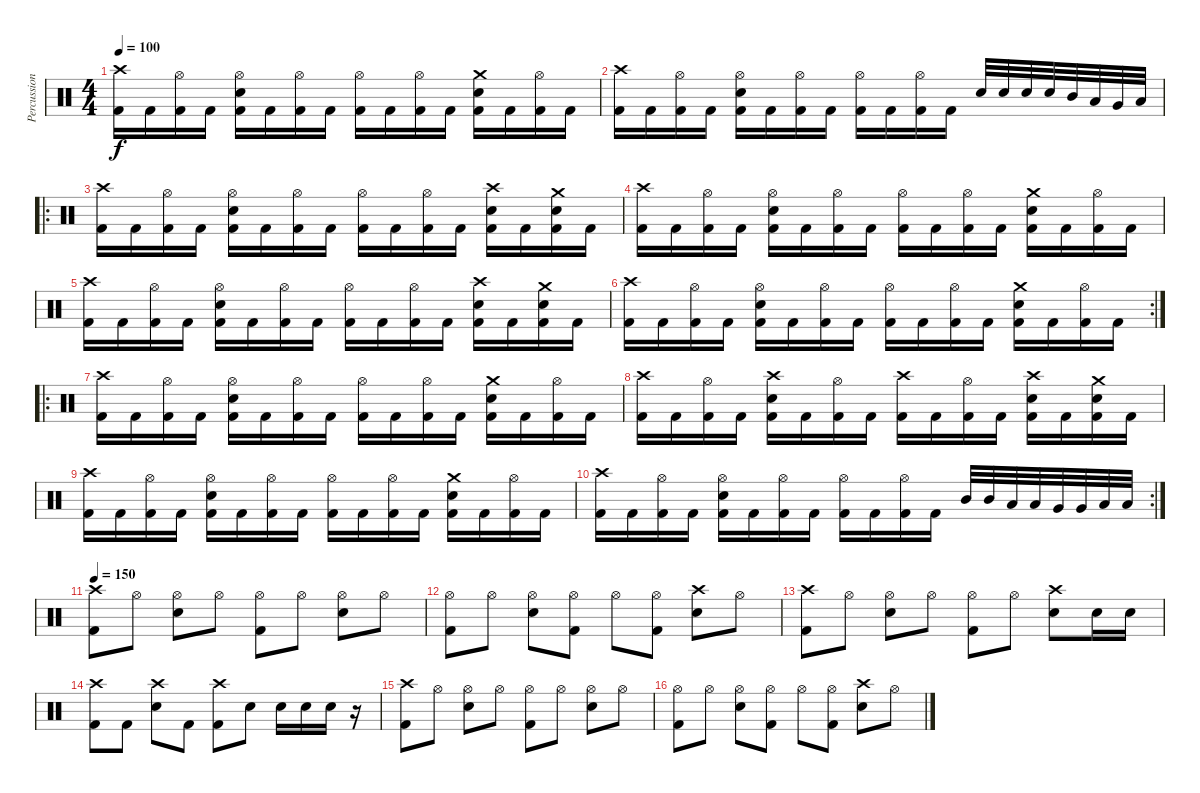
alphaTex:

\track ("Percussion" "Percussion") {instrument percussion}
\staff {score}
\articulation defaults
\ts (4 4)
\tempo 100
\clef neutral
\ks c
("Crash high (hit)" "Kick (hit) 2").16{dy f} "Kick (hit) 2".16 ("Hi-Hat (open)" "Kick (hit) 2").16 "Kick (hit) 2".16 ("Hi-Hat (open)" "Snare (hit) 2" "Kick (hit) 2").16 "Kick (hit) 2".16 ("Hi-Hat (open)" "Kick (hit) 2").16 "Kick (hit) 2".16 ("Hi-Hat (open)" "Kick (hit) 2").16 "Kick (hit) 2".16 ("Hi-Hat (open)" "Kick (hit) 2").16 "Kick (hit) 2".16 ("Crash medium (hit)" "Snare (hit) 2" "Kick (hit) 2").16 "Kick (hit) 2".16 ("Hi-Hat (open)" "Kick (hit) 2").16 "Kick (hit) 2".16 |
("Crash high (hit)" "Kick (hit) 2").16 "Kick (hit) 2".16 ("Hi-Hat (open)" "Kick (hit) 2").16 "Kick (hit) 2".16 ("Hi-Hat (open)" "Snare (hit) 2" "Kick (hit) 2").16 "Kick (hit) 2".16 ("Hi-Hat (open)" "Kick (hit) 2").16 "Kick (hit) 2".16 ("Hi-Hat (open)" "Kick (hit) 2").16 "Kick (hit) 2".16 ("Hi-Hat (open)" "Kick (hit) 2").16 "Kick (hit) 2".16 "Snare (hit) 2".32 "Snare (hit) 2".32 "Snare (hit) 2".32 "Snare (hit) 2".32 "Mid Tom (hit)".32 "Low Tom (hit)".32 "Very Low Tom (hit)".32 "Low Floor Tom (hit)".32 |
\ro
("Crash high (hit)" "Kick (hit) 2").16 "Kick (hit) 2".16 ("Hi-Hat (open)" "Kick (hit) 2").16 "Kick (hit) 2".16 ("Hi-Hat (open)" "Snare (hit) 2" "Kick (hit) 2").16 "Kick (hit) 2".16 ("Hi-Hat (open)" "Kick (hit) 2").16 "Kick (hit) 2".16 ("Hi-Hat (open)" "Kick (hit) 2").16 "Kick (hit) 2".16 ("Hi-Hat (open)" "Kick (hit) 2").16 "Kick (hit) 2".16 ("Crash high (hit)" "Snare (hit) 2" "Kick (hit) 2").16 "Kick (hit) 2".16 ("Crash medium (hit)" "Snare (hit) 2" "Kick (hit) 2").16 "Kick (hit) 2".16 |
("Crash high (hit)" "Kick (hit) 2").16 "Kick (hit) 2".16 ("Hi-Hat (open)" "Kick (hit) 2").16 "Kick (hit) 2".16 ("Hi-Hat (open)" "Snare (hit) 2" "Kick (hit) 2").16 "Kick (hit) 2".16 ("Hi-Hat (open)" "Kick (hit) 2").16 "Kick (hit) 2".16 ("Hi-Hat (open)" "Kick (hit) 2").16 "Kick (hit) 2".16 ("Hi-Hat (open)" "Kick (hit) 2").16 "Kick (hit) 2".16 ("Crash medium (hit)" "Snare (hit) 2" "Kick (hit) 2").16 "Kick (hit) 2".16 ("Hi-Hat (open)" "Kick (hit) 2").16 "Kick (hit) 2".16 |
("Crash high (hit)" "Kick (hit) 2").16 "Kick (hit) 2".16 ("Hi-Hat (open)" "Kick (hit) 2").16 "Kick (hit) 2".16 ("Hi-Hat (open)" "Snare (hit) 2" "Kick (hit) 2").16 "Kick (hit) 2".16 ("Hi-Hat (open)" "Kick (hit) 2").16 "Kick (hit) 2".16 ("Hi-Hat (open)" "Kick (hit) 2").16 "Kick (hit) 2".16 ("Hi-Hat (open)" "Kick (hit) 2").16 "Kick (hit) 2".16 ("Crash high (hit)" "Snare (hit) 2" "Kick (hit) 2").16 "Kick (hit) 2".16 ("Crash medium (hit)" "Snare (hit) 2" "Kick (hit) 2").16 "Kick (hit) 2".16 |
\rc 2
("Crash high (hit)" "Kick (hit) 2").16 "Kick (hit) 2".16 ("Hi-Hat (open)" "Kick (hit) 2").16 "Kick (hit) 2".16 ("Hi-Hat (open)" "Snare (hit) 2" "Kick (hit) 2").16 "Kick (hit) 2".16 ("Hi-Hat (open)" "Kick (hit) 2").16 "Kick (hit) 2".16 ("Hi-Hat (open)" "Kick (hit) 2").16 "Kick (hit) 2".16 ("Hi-Hat (open)" "Kick (hit) 2").16 "Kick (hit) 2".16 ("Crash medium (hit)" "Snare (hit) 2" "Kick (hit) 2").16 "Kick (hit) 2".16 ("Hi-Hat (open)" "Kick (hit) 2").16 "Kick (hit) 2".16 |
\ro
("Crash high (hit)" "Kick (hit) 2").16 "Kick (hit) 2".16 ("Hi-Hat (open)" "Kick (hit) 2").16 "Kick (hit) 2".16 ("Hi-Hat (open)" "Snare (hit) 2" "Kick (hit) 2").16 "Kick (hit) 2".16 ("Hi-Hat (open)" "Kick (hit) 2").16 "Kick (hit) 2".16 ("Hi-Hat (open)" "Kick (hit) 2").16 "Kick (hit) 2".16 ("Hi-Hat (open)" "Kick (hit) 2").16 "Kick (hit) 2".16 ("Crash medium (hit)" "Snare (hit) 2" "Kick (hit) 2").16 "Kick (hit) 2".16 ("Hi-Hat (open)" "Kick (hit) 2").16 "Kick (hit) 2".16 |
("Crash high (hit)" "Kick (hit) 2").16 "Kick (hit) 2".16 ("Hi-Hat (open)" "Kick (hit) 2").16 "Kick (hit) 2".16 ("Crash high (hit)" "Snare (hit) 2" "Kick (hit) 2").16 "Kick (hit) 2".16 ("Hi-Hat (open)" "Kick (hit) 2").16 "Kick (hit) 2".16 ("Crash high (hit)" "Kick (hit) 2").16 "Kick (hit) 2".16 ("Hi-Hat (open)" "Kick (hit) 2").16 "Kick (hit) 2".16 ("Crash high (hit)" "Snare (hit) 2" "Kick (hit) 2").16 "Kick (hit) 2".16 ("Crash medium (hit)" "Snare (hit) 2" "Kick (hit) 2").16 "Kick (hit) 2".16 |
("Crash high (hit)" "Kick (hit) 2").16 "Kick (hit) 2".16 ("Hi-Hat (open)" "Kick (hit) 2").16 "Kick (hit) 2".16 ("Hi-Hat (open)" "Snare (hit) 2" "Kick (hit) 2").16 "Kick (hit) 2".16 ("Hi-Hat (open)" "Kick (hit) 2").16 "Kick (hit) 2".16 ("Hi-Hat (open)" "Kick (hit) 2").16 "Kick (hit) 2".16 ("Hi-Hat (open)" "Kick (hit) 2").16 "Kick (hit) 2".16 ("Crash medium (hit)" "Snare (hit) 2" "Kick (hit) 2").16 "Kick (hit) 2".16 ("Hi-Hat (open)" "Kick (hit) 2").16 "Kick (hit) 2".16 |
\rc 2
("Crash high (hit)" "Kick (hit) 2").16 "Kick (hit) 2".16 ("Hi-Hat (open)" "Kick (hit) 2").16 "Kick (hit) 2".16 ("Hi-Hat (open)" "Snare (hit) 2" "Kick (hit) 2").16 "Kick (hit) 2".16 ("Hi-Hat (open)" "Kick (hit) 2").16 "Kick (hit) 2".16 ("Hi-Hat (open)" "Kick (hit) 2").16 "Kick (hit) 2".16 ("Hi-Hat (open)" "Kick (hit) 2").16 "Kick (hit) 2".16 "Mid Tom (hit)".32 "Mid Tom (hit)".32 "Low Tom (hit)".32 "Low Tom (hit)".32 "Very Low Tom (hit)".32 "Very Low Tom (hit)".32 "Low Floor Tom (hit)".32 "Low Floor Tom (hit)".32 |
\tempo 150
("Crash high (hit)" "Kick (hit) 2").8 "Hi-Hat (open)".8 ("Hi-Hat (open)" "Snare (hit) 2").8 "Hi-Hat (open)".8 ("Hi-Hat (open)" "Kick (hit) 2").8 "Hi-Hat (open)".8 ("Hi-Hat (open)" "Snare (hit) 2").8 "Hi-Hat (open)".8 |
("Hi-Hat (open)" "Kick (hit) 2").8 "Hi-Hat (open)".8 ("Hi-Hat (open)" "Snare (hit) 2").8 ("Hi-Hat (open)" "Kick (hit) 2").8 "Hi-Hat (open)".8 ("Hi-Hat (open)" "Kick (hit) 2").8 ("Crash high (hit)" "Snare (hit) 2").8 "Hi-Hat (open)".8 |
("Crash high (hit)" "Kick (hit) 2").8 "Hi-Hat (open)".8 ("Hi-Hat (open)" "Snare (hit) 2").8 "Hi-Hat (open)".8 ("Hi-Hat (open)" "Kick (hit) 2").8 "Hi-Hat (open)".8 ("Crash high (hit)" "Snare (hit) 2").8 "Snare (hit) 2".16 "Snare (hit) 2".16 |
("Crash high (hit)" "Kick (hit) 2").8 "Kick (hit) 2".8 ("Crash high (hit)" "Snare (hit) 2").8 "Kick (hit) 2".8 ("Crash high (hit)" "Kick (hit) 2").8 "Snare (hit) 2".8 "Snare (hit) 2".16 "Snare (hit) 2".16 "Snare (hit) 2".16 r.16 |
("Crash high (hit)" "Kick (hit) 2").8 "Hi-Hat (open)".8 ("Hi-Hat (open)" "Snare (hit) 2").8 "Hi-Hat (open)".8 ("Hi-Hat (open)" "Kick (hit) 2").8 "Hi-Hat (open)".8 ("Hi-Hat (open)" "Snare (hit) 2").8 "Hi-Hat (open)".8 |
("Hi-Hat (open)" "Kick (hit) 2").8 "Hi-Hat (open)".8 ("Hi-Hat (open)" "Snare (hit) 2").8 ("Hi-Hat (open)" "Kick (hit) 2").8 "Hi-Hat (open)".8 ("Hi-Hat (open)" "Kick (hit) 2").8 ("Crash high (hit)" "Snare (hit) 2").8 "Hi-Hat (open)".8
